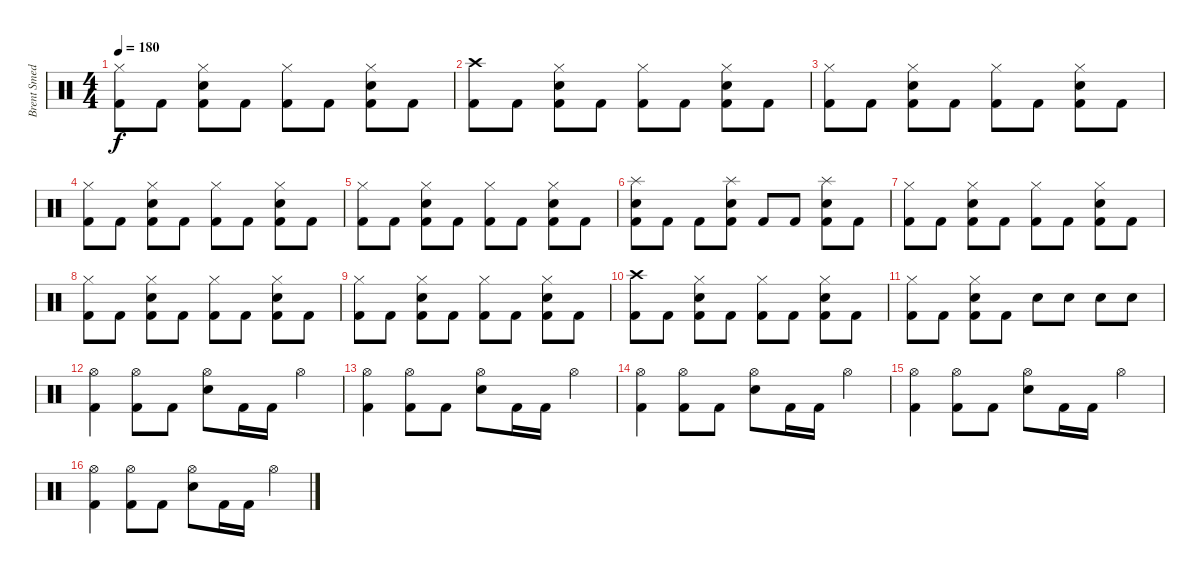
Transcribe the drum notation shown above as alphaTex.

\track ("Brent Smedley" "Brent Smed") {instrument percussion}
\staff {score}
\articulation defaults
\ts (4 4)
\tempo 180
\clef neutral
\ks c
("Hi-Hat (closed)" "Kick (hit) 2").8{dy f} "Kick (hit) 2".8 ("Hi-Hat (closed)" "Snare (hit) 2" "Kick (hit) 2").8 "Kick (hit) 2".8 ("Hi-Hat (closed)" "Kick (hit) 2").8 "Kick (hit) 2".8 ("Hi-Hat (closed)" "Snare (hit) 2" "Kick (hit) 2").8 "Kick (hit) 2".8 |
("Crash high (hit)" "Kick (hit) 2").8 "Kick (hit) 2".8 ("Hi-Hat (closed)" "Snare (hit) 2" "Kick (hit) 2").8 "Kick (hit) 2".8 ("Hi-Hat (closed)" "Kick (hit) 2").8 "Kick (hit) 2".8 ("Hi-Hat (closed)" "Snare (hit) 2" "Kick (hit) 2").8 "Kick (hit) 2".8 |
("Hi-Hat (closed)" "Kick (hit) 2").8 "Kick (hit) 2".8 ("Hi-Hat (closed)" "Snare (hit) 2" "Kick (hit) 2").8 "Kick (hit) 2".8 ("Hi-Hat (closed)" "Kick (hit) 2").8 "Kick (hit) 2".8 ("Hi-Hat (closed)" "Snare (hit) 2" "Kick (hit) 2").8 "Kick (hit) 2".8 |
("Hi-Hat (closed)" "Kick (hit) 2").8 "Kick (hit) 2".8 ("Hi-Hat (closed)" "Snare (hit) 2" "Kick (hit) 2").8 "Kick (hit) 2".8 ("Hi-Hat (closed)" "Kick (hit) 2").8 "Kick (hit) 2".8 ("Hi-Hat (closed)" "Snare (hit) 2" "Kick (hit) 2").8 "Kick (hit) 2".8 |
("Hi-Hat (closed)" "Kick (hit) 2").8 "Kick (hit) 2".8 ("Hi-Hat (closed)" "Snare (hit) 2" "Kick (hit) 2").8 "Kick (hit) 2".8 ("Hi-Hat (closed)" "Kick (hit) 2").8 "Kick (hit) 2".8 ("Hi-Hat (closed)" "Snare (hit) 2" "Kick (hit) 2").8 "Kick (hit) 2".8 |
("Splash (hit)" "Snare (hit) 2" "Kick (hit) 2").8 "Kick (hit) 2".8 "Kick (hit) 2".8 ("Splash (hit)" "Snare (hit) 2" "Kick (hit) 2").8 "Kick (hit) 2".8 "Kick (hit) 2".8 ("Splash (hit)" "Snare (hit) 2" "Kick (hit) 2").8 "Kick (hit) 2".8 |
("Hi-Hat (closed)" "Kick (hit) 2").8 "Kick (hit) 2".8 ("Hi-Hat (closed)" "Snare (hit) 2" "Kick (hit) 2").8 "Kick (hit) 2".8 ("Hi-Hat (closed)" "Kick (hit) 2").8 "Kick (hit) 2".8 ("Hi-Hat (closed)" "Snare (hit) 2" "Kick (hit) 2").8 "Kick (hit) 2".8 |
("Hi-Hat (closed)" "Kick (hit) 2").8 "Kick (hit) 2".8 ("Hi-Hat (closed)" "Snare (hit) 2" "Kick (hit) 2").8 "Kick (hit) 2".8 ("Hi-Hat (closed)" "Kick (hit) 2").8 "Kick (hit) 2".8 ("Hi-Hat (closed)" "Snare (hit) 2" "Kick (hit) 2").8 "Kick (hit) 2".8 |
("Hi-Hat (closed)" "Kick (hit) 2").8 "Kick (hit) 2".8 ("Hi-Hat (closed)" "Snare (hit) 2" "Kick (hit) 2").8 "Kick (hit) 2".8 ("Hi-Hat (closed)" "Kick (hit) 2").8 "Kick (hit) 2".8 ("Hi-Hat (closed)" "Snare (hit) 2" "Kick (hit) 2").8 "Kick (hit) 2".8 |
("Crash high (hit)" "Kick (hit) 2").8 "Kick (hit) 2".8 ("Hi-Hat (closed)" "Snare (hit) 2" "Kick (hit) 2").8 "Kick (hit) 2".8 ("Hi-Hat (closed)" "Kick (hit) 2").8 "Kick (hit) 2".8 ("Hi-Hat (closed)" "Snare (hit) 2" "Kick (hit) 2").8 "Kick (hit) 2".8 |
("Hi-Hat (closed)" "Kick (hit) 2").8 "Kick (hit) 2".8 ("Hi-Hat (closed)" "Snare (hit) 2" "Kick (hit) 2").8 "Kick (hit) 2".8 "Snare (hit) 2".8 "Snare (hit) 2".8 "Snare (hit) 2".8 "Snare (hit) 2".8 |
("Hi-Hat (open)" "Kick (hit) 2").4 ("Hi-Hat (open)" "Kick (hit) 2").8 "Kick (hit) 2".8 ("Hi-Hat (open)" "Snare (hit) 2").8 "Kick (hit) 2".16 "Kick (hit) 2".16 "Hi-Hat (open)".4 |
("Hi-Hat (open)" "Kick (hit) 2").4 ("Hi-Hat (open)" "Kick (hit) 2").8 "Kick (hit) 2".8 ("Hi-Hat (open)" "Snare (hit) 2").8 "Kick (hit) 2".16 "Kick (hit) 2".16 "Hi-Hat (open)".4 |
("Hi-Hat (open)" "Kick (hit) 2").4 ("Hi-Hat (open)" "Kick (hit) 2").8 "Kick (hit) 2".8 ("Hi-Hat (open)" "Snare (hit) 2").8 "Kick (hit) 2".16 "Kick (hit) 2".16 "Hi-Hat (open)".4 |
("Hi-Hat (open)" "Kick (hit) 2").4 ("Hi-Hat (open)" "Kick (hit) 2").8 "Kick (hit) 2".8 ("Hi-Hat (open)" "Snare (hit) 2").8 "Kick (hit) 2".16 "Kick (hit) 2".16 "Hi-Hat (open)".4 |
("Hi-Hat (open)" "Kick (hit) 2").4 ("Hi-Hat (open)" "Kick (hit) 2").8 "Kick (hit) 2".8 ("Hi-Hat (open)" "Snare (hit) 2").8 "Kick (hit) 2".16 "Kick (hit) 2".16 "Hi-Hat (open)".4
